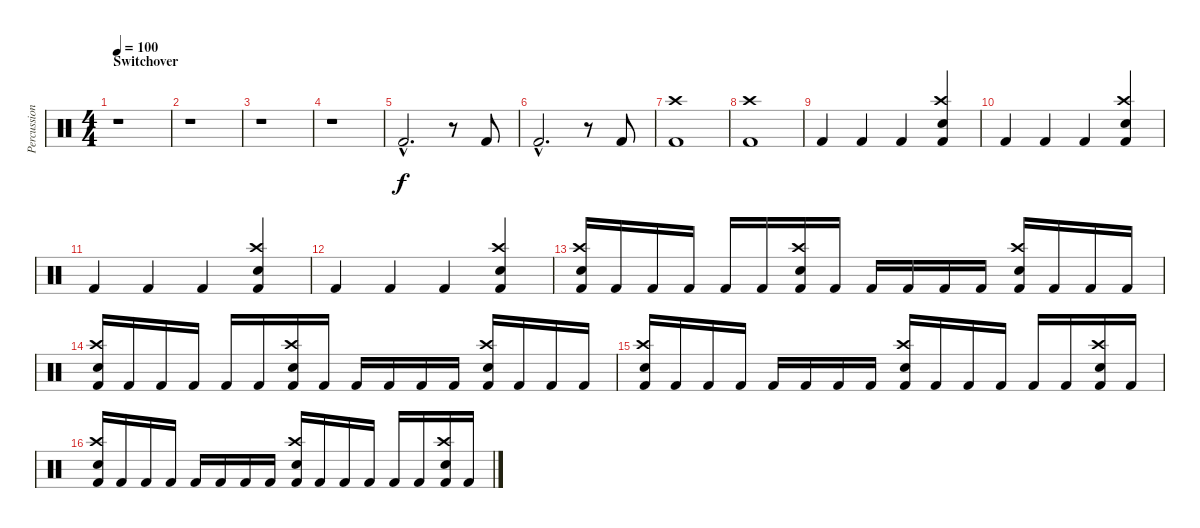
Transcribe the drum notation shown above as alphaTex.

\track ("Percussion" "Percussion") {instrument percussion}
\staff {score}
\articulation defaults
\ts (4 4)
\section ("" "Switchover")
\tempo 100
\clef neutral
\ks c
r.1{dy f} |
r.1 |
r.1 |
r.1 |
"Kick (hit) 2"{hac}.2{d} r.8 "Kick (hit) 2".8 |
"Kick (hit) 2"{hac}.2{d} r.8 "Kick (hit) 2".8 |
("Kick (hit) 2" "Crash high (hit)").1 |
("Kick (hit) 2" "Crash high (hit)").1 |
"Kick (hit) 2".4 "Kick (hit) 2".4 "Kick (hit) 2".4 ("Crash high (hit)" "Kick (hit) 2" "Electric Snare (hit)").4 |
"Kick (hit) 2".4 "Kick (hit) 2".4 "Kick (hit) 2".4 ("Crash high (hit)" "Kick (hit) 2" "Electric Snare (hit)").4 |
"Kick (hit) 2".4 "Kick (hit) 2".4 "Kick (hit) 2".4 ("Crash high (hit)" "Kick (hit) 2" "Electric Snare (hit)").4 |
"Kick (hit) 2".4 "Kick (hit) 2".4 "Kick (hit) 2".4 ("Crash high (hit)" "Kick (hit) 2" "Electric Snare (hit)").4 |
("Electric Snare (hit)" "Crash high (hit)" "Kick (hit) 2").16 "Kick (hit) 2".16 "Kick (hit) 2".16 "Kick (hit) 2".16 "Kick (hit) 2".16 "Kick (hit) 2".16 ("Electric Snare (hit)" "Crash high (hit)" "Kick (hit) 2").16 "Kick (hit) 2".16 "Kick (hit) 2".16 "Kick (hit) 2".16 "Kick (hit) 2".16 "Kick (hit) 2".16 ("Electric Snare (hit)" "Crash high (hit)" "Kick (hit) 2").16 "Kick (hit) 2".16 "Kick (hit) 2".16 "Kick (hit) 2".16 |
("Electric Snare (hit)" "Crash high (hit)" "Kick (hit) 2").16 "Kick (hit) 2".16 "Kick (hit) 2".16 "Kick (hit) 2".16 "Kick (hit) 2".16 "Kick (hit) 2".16 ("Electric Snare (hit)" "Crash high (hit)" "Kick (hit) 2").16 "Kick (hit) 2".16 "Kick (hit) 2".16 "Kick (hit) 2".16 "Kick (hit) 2".16 "Kick (hit) 2".16 ("Electric Snare (hit)" "Crash high (hit)" "Kick (hit) 2").16 "Kick (hit) 2".16 "Kick (hit) 2".16 "Kick (hit) 2".16 |
("Electric Snare (hit)" "Crash high (hit)" "Kick (hit) 2").16 "Kick (hit) 2".16 "Kick (hit) 2".16 "Kick (hit) 2".16 "Kick (hit) 2".16 "Kick (hit) 2".16 "Kick (hit) 2".16 "Kick (hit) 2".16 ("Electric Snare (hit)" "Crash high (hit)" "Kick (hit) 2").16 "Kick (hit) 2".16 "Kick (hit) 2".16 "Kick (hit) 2".16 "Kick (hit) 2".16 "Kick (hit) 2".16 ("Electric Snare (hit)" "Crash high (hit)" "Kick (hit) 2").16 "Kick (hit) 2".16 |
("Electric Snare (hit)" "Crash high (hit)" "Kick (hit) 2").16 "Kick (hit) 2".16 "Kick (hit) 2".16 "Kick (hit) 2".16 "Kick (hit) 2".16 "Kick (hit) 2".16 "Kick (hit) 2".16 "Kick (hit) 2".16 ("Electric Snare (hit)" "Crash high (hit)" "Kick (hit) 2").16 "Kick (hit) 2".16 "Kick (hit) 2".16 "Kick (hit) 2".16 "Kick (hit) 2".16 "Kick (hit) 2".16 ("Electric Snare (hit)" "Crash high (hit)" "Kick (hit) 2").16 "Kick (hit) 2".16
